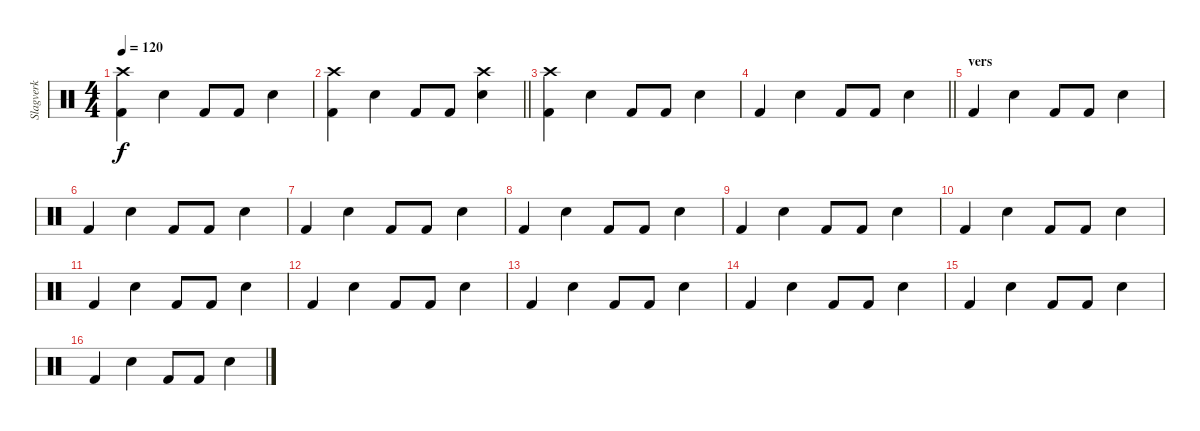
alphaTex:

\track ("Slagverk" "Slagverk") {instrument percussion}
\staff {score}
\articulation defaults
\ts (4 4)
\tempo 120
\clef neutral
\ks c
("Kick (hit) 2" "Crash high (hit)").4{dy f} "Snare (hit) 2".4 "Kick (hit) 2".8 "Kick (hit) 2".8 "Snare (hit) 2".4 |
\barLineRight lightlight
("Kick (hit) 2" "Crash high (hit)").4 "Snare (hit) 2".4 "Kick (hit) 2".8 "Kick (hit) 2".8 ("Snare (hit) 2" "Crash high (hit)").4 |
("Kick (hit) 2" "Crash high (hit)").4 "Snare (hit) 2".4 "Kick (hit) 2".8 "Kick (hit) 2".8 "Snare (hit) 2".4 |
\barLineRight lightlight "Kick (hit) 2".4 "Snare (hit) 2".4 "Kick (hit) 2".8 "Kick (hit) 2".8 "Snare (hit) 2".4
|
\section ("" "vers")
"Kick (hit) 2".4 "Snare (hit) 2".4 "Kick (hit) 2".8 "Kick (hit) 2".8 "Snare (hit) 2".4 |
"Kick (hit) 2".4 "Snare (hit) 2".4 "Kick (hit) 2".8 "Kick (hit) 2".8 "Snare (hit) 2".4 |
"Kick (hit) 2".4 "Snare (hit) 2".4 "Kick (hit) 2".8 "Kick (hit) 2".8 "Snare (hit) 2".4 |
"Kick (hit) 2".4 "Snare (hit) 2".4 "Kick (hit) 2".8 "Kick (hit) 2".8 "Snare (hit) 2".4 |
"Kick (hit) 2".4 "Snare (hit) 2".4 "Kick (hit) 2".8 "Kick (hit) 2".8 "Snare (hit) 2".4 |
"Kick (hit) 2".4 "Snare (hit) 2".4 "Kick (hit) 2".8 "Kick (hit) 2".8 "Snare (hit) 2".4 |
"Kick (hit) 2".4 "Snare (hit) 2".4 "Kick (hit) 2".8 "Kick (hit) 2".8 "Snare (hit) 2".4 |
"Kick (hit) 2".4 "Snare (hit) 2".4 "Kick (hit) 2".8 "Kick (hit) 2".8 "Snare (hit) 2".4 |
"Kick (hit) 2".4 "Snare (hit) 2".4 "Kick (hit) 2".8 "Kick (hit) 2".8 "Snare (hit) 2".4 |
"Kick (hit) 2".4 "Snare (hit) 2".4 "Kick (hit) 2".8 "Kick (hit) 2".8 "Snare (hit) 2".4 |
"Kick (hit) 2".4 "Snare (hit) 2".4 "Kick (hit) 2".8 "Kick (hit) 2".8 "Snare (hit) 2".4 |
"Kick (hit) 2".4 "Snare (hit) 2".4 "Kick (hit) 2".8 "Kick (hit) 2".8 "Snare (hit) 2".4
